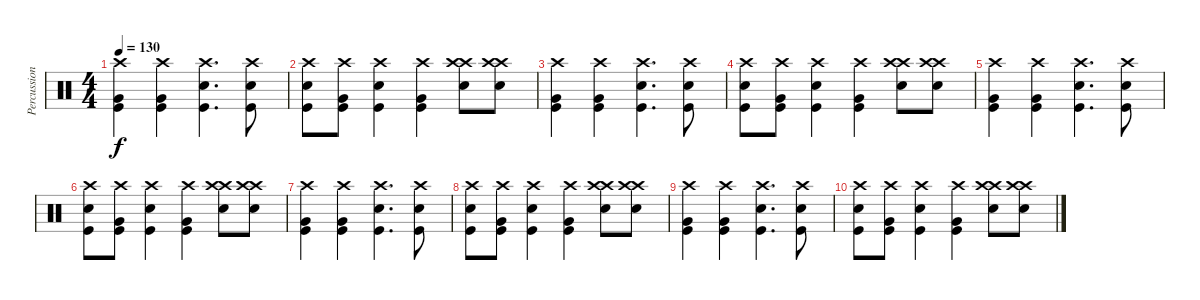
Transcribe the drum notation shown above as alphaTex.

\track ("Percussions" "Percussion") {instrument percussion}
\staff {score}
\articulation defaults
\ts (4 4)
\tempo 130
\clef neutral
\ks c
("Crash high (hit)" "Very Low Tom (hit)" "Kick (hit)").4{dy f} ("Crash high (hit)" "Very Low Tom (hit)" "Kick (hit)").4 ("Crash high (hit)" "Snare (hit) 2" "Kick (hit)").4{d} ("Crash high (hit)" "Snare (hit) 2" "Kick (hit)").8 |
("Crash high (hit)" "Snare (hit) 2" "Kick (hit)").8 ("Crash high (hit)" "Very Low Tom (hit)" "Kick (hit)").8 ("Crash high (hit)" "Snare (hit) 2" "Kick (hit)").4 ("Crash high (hit)" "Very Low Tom (hit)" "Kick (hit)").4 ("Crash high (hit)" "Snare (hit) 2" "Crash high (hit)").8 ("Crash high (hit)" "Snare (hit) 2" "Crash high (hit)").8 |
("Crash high (hit)" "Very Low Tom (hit)" "Kick (hit)").4 ("Crash high (hit)" "Very Low Tom (hit)" "Kick (hit)").4 ("Crash high (hit)" "Snare (hit) 2" "Kick (hit)").4{d} ("Crash high (hit)" "Snare (hit) 2" "Kick (hit)").8 |
("Crash high (hit)" "Snare (hit) 2" "Kick (hit)").8 ("Crash high (hit)" "Very Low Tom (hit)" "Kick (hit)").8 ("Crash high (hit)" "Snare (hit) 2" "Kick (hit)").4 ("Crash high (hit)" "Very Low Tom (hit)" "Kick (hit)").4 ("Crash high (hit)" "Snare (hit) 2" "Crash high (hit)").8 ("Crash high (hit)" "Snare (hit) 2" "Crash high (hit)").8 |
("Crash high (hit)" "Very Low Tom (hit)" "Kick (hit)").4 ("Crash high (hit)" "Very Low Tom (hit)" "Kick (hit)").4 ("Crash high (hit)" "Snare (hit) 2" "Kick (hit)").4{d} ("Crash high (hit)" "Snare (hit) 2" "Kick (hit)").8 |
("Crash high (hit)" "Snare (hit) 2" "Kick (hit)").8 ("Crash high (hit)" "Very Low Tom (hit)" "Kick (hit)").8 ("Crash high (hit)" "Snare (hit) 2" "Kick (hit)").4 ("Crash high (hit)" "Very Low Tom (hit)" "Kick (hit)").4 ("Crash high (hit)" "Snare (hit) 2" "Crash high (hit)").8 ("Crash high (hit)" "Snare (hit) 2" "Crash high (hit)").8 |
("Crash high (hit)" "Very Low Tom (hit)" "Kick (hit)").4{volume 0} ("Crash high (hit)" "Very Low Tom (hit)" "Kick (hit)").4 ("Crash high (hit)" "Snare (hit) 2" "Kick (hit)").4{d} ("Crash high (hit)" "Snare (hit) 2" "Kick (hit)").8 |
("Crash high (hit)" "Snare (hit) 2" "Kick (hit)").8 ("Crash high (hit)" "Very Low Tom (hit)" "Kick (hit)").8 ("Crash high (hit)" "Snare (hit) 2" "Kick (hit)").4 ("Crash high (hit)" "Very Low Tom (hit)" "Kick (hit)").4 ("Crash high (hit)" "Snare (hit) 2" "Crash high (hit)").8 ("Crash high (hit)" "Snare (hit) 2" "Crash high (hit)").8 |
("Crash high (hit)" "Very Low Tom (hit)" "Kick (hit)").4 ("Crash high (hit)" "Very Low Tom (hit)" "Kick (hit)").4 ("Crash high (hit)" "Snare (hit) 2" "Kick (hit)").4{d} ("Crash high (hit)" "Snare (hit) 2" "Kick (hit)").8 |
("Crash high (hit)" "Snare (hit) 2" "Kick (hit)").8 ("Crash high (hit)" "Very Low Tom (hit)" "Kick (hit)").8 ("Crash high (hit)" "Snare (hit) 2" "Kick (hit)").4 ("Crash high (hit)" "Very Low Tom (hit)" "Kick (hit)").4 ("Crash high (hit)" "Snare (hit) 2" "Crash high (hit)").8 ("Crash high (hit)" "Snare (hit) 2" "Crash high (hit)").8
